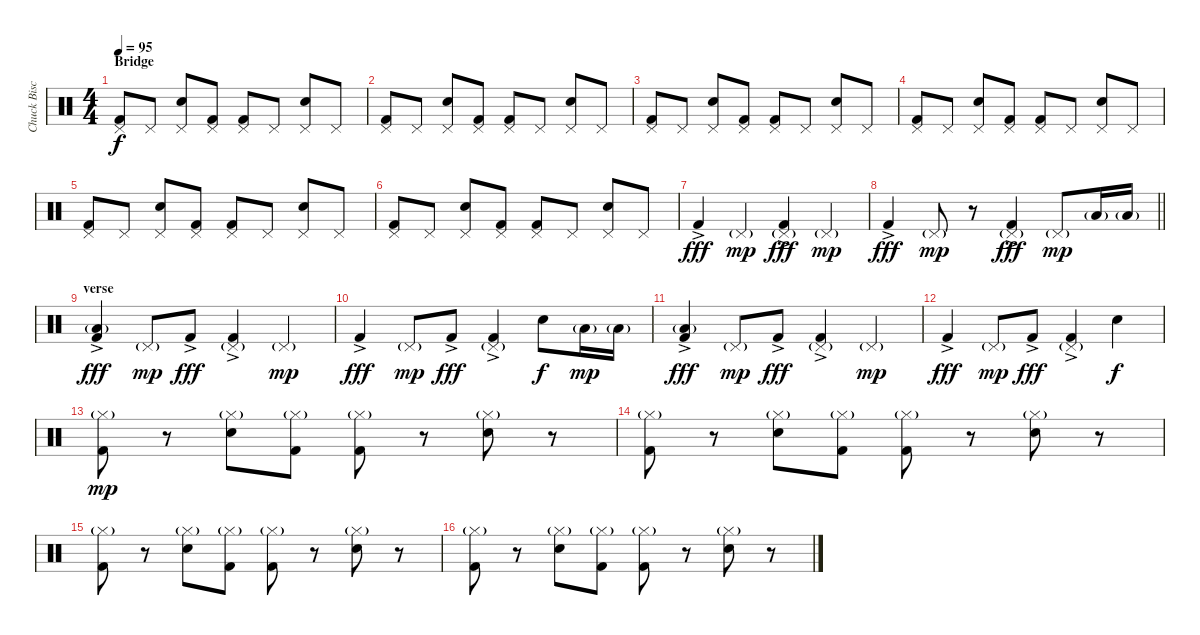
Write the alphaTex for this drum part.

\track ("Chuck Biscuits" "Chuck Bisc") {instrument percussion}
\staff {score}
\articulation defaults
\ts (4 4)
\section ("" "Bridge")
\tempo 95
\clef neutral
\ks c
("Pedal Hi-Hat (hit)" "Kick (hit) 2").8{dy f} "Pedal Hi-Hat (hit)".8 ("Pedal Hi-Hat (hit)" "Electric Snare (hit)").8 ("Pedal Hi-Hat (hit)" "Kick (hit) 2").8 ("Pedal Hi-Hat (hit)" "Kick (hit) 2").8 "Pedal Hi-Hat (hit)".8 ("Pedal Hi-Hat (hit)" "Electric Snare (hit)").8 "Pedal Hi-Hat (hit)".8 |
("Pedal Hi-Hat (hit)" "Kick (hit) 2").8 "Pedal Hi-Hat (hit)".8 ("Pedal Hi-Hat (hit)" "Electric Snare (hit)").8 ("Pedal Hi-Hat (hit)" "Kick (hit) 2").8 ("Pedal Hi-Hat (hit)" "Kick (hit) 2").8 "Pedal Hi-Hat (hit)".8 ("Pedal Hi-Hat (hit)" "Electric Snare (hit)").8 "Pedal Hi-Hat (hit)".8 |
("Pedal Hi-Hat (hit)" "Kick (hit) 2").8 "Pedal Hi-Hat (hit)".8 ("Pedal Hi-Hat (hit)" "Electric Snare (hit)").8 ("Pedal Hi-Hat (hit)" "Kick (hit) 2").8 ("Pedal Hi-Hat (hit)" "Kick (hit) 2").8 "Pedal Hi-Hat (hit)".8 ("Pedal Hi-Hat (hit)" "Electric Snare (hit)").8 "Pedal Hi-Hat (hit)".8 |
("Pedal Hi-Hat (hit)" "Kick (hit) 2").8 "Pedal Hi-Hat (hit)".8 ("Pedal Hi-Hat (hit)" "Electric Snare (hit)").8 ("Pedal Hi-Hat (hit)" "Kick (hit) 2").8 ("Pedal Hi-Hat (hit)" "Kick (hit) 2").8 "Pedal Hi-Hat (hit)".8 ("Pedal Hi-Hat (hit)" "Electric Snare (hit)").8 "Pedal Hi-Hat (hit)".8 |
("Pedal Hi-Hat (hit)" "Kick (hit) 2").8 "Pedal Hi-Hat (hit)".8 ("Pedal Hi-Hat (hit)" "Electric Snare (hit)").8 ("Pedal Hi-Hat (hit)" "Kick (hit) 2").8 ("Pedal Hi-Hat (hit)" "Kick (hit) 2").8 "Pedal Hi-Hat (hit)".8 ("Pedal Hi-Hat (hit)" "Electric Snare (hit)").8 "Pedal Hi-Hat (hit)".8 |
("Pedal Hi-Hat (hit)" "Kick (hit) 2").8 "Pedal Hi-Hat (hit)".8 ("Pedal Hi-Hat (hit)" "Electric Snare (hit)").8 ("Pedal Hi-Hat (hit)" "Kick (hit) 2").8 ("Pedal Hi-Hat (hit)" "Kick (hit) 2").8 "Pedal Hi-Hat (hit)".8 ("Pedal Hi-Hat (hit)" "Electric Snare (hit)").8 "Pedal Hi-Hat (hit)".8 |
"Kick (hit) 2"{ac}.4{dy fff} "Pedal Hi-Hat (hit)"{g}.4{dy mp} ("Pedal Hi-Hat (hit)"{g} "Kick (hit) 2"{ac}).4{dy fff} "Pedal Hi-Hat (hit)"{g}.4{dy mp} |
\barLineRight lightlight "Kick (hit) 2"{ac}.4{dy fff} "Pedal Hi-Hat (hit)"{g}.8{dy mp}
r.8 ("Pedal Hi-Hat (hit)"{g} "Kick (hit) 2"{ac}).4{dy fff} "Pedal Hi-Hat (hit)"{g}.8{dy mp} "Low Floor Tom (hit)"{g}.16 "Low Floor Tom (hit)"{g}.16 |
\section ("" "verse")
("Low Floor Tom (hit)"{g} "Kick (hit) 2"{ac}).4{dy fff} "Pedal Hi-Hat (hit)"{g}.8{dy mp} "Kick (hit) 2"{ac}.8{dy fff} ("Pedal Hi-Hat (hit)"{g} "Kick (hit) 2"{ac}).4 "Pedal Hi-Hat (hit)"{g}.4{dy mp} |
"Kick (hit) 2"{ac}.4{dy fff} "Pedal Hi-Hat (hit)"{g}.8{dy mp} "Kick (hit) 2"{ac}.8{dy fff} ("Pedal Hi-Hat (hit)"{g} "Kick (hit) 2"{ac}).4 "Electric Snare (hit)".8{dy f} "Low Floor Tom (hit)"{g}.16{dy mp} "Low Floor Tom (hit)"{g}.16 |
("Low Floor Tom (hit)"{g} "Kick (hit) 2"{ac}).4{dy fff} "Pedal Hi-Hat (hit)"{g}.8{dy mp} "Kick (hit) 2"{ac}.8{dy fff} ("Pedal Hi-Hat (hit)"{g} "Kick (hit) 2"{ac}).4 "Pedal Hi-Hat (hit)"{g}.4{dy mp} |
"Kick (hit) 2"{ac}.4{dy fff} "Pedal Hi-Hat (hit)"{g}.8{dy mp} "Kick (hit) 2"{ac}.8{dy fff} ("Pedal Hi-Hat (hit)"{g} "Kick (hit) 2"{ac}).4 "Electric Snare (hit)".4{dy f} |
("Hi-Hat (closed)"{g} "Kick (hit) 2").8{dy mp} r.8 ("Hi-Hat (closed)"{g} "Electric Snare (hit)").8 ("Hi-Hat (closed)"{g} "Kick (hit) 2").8 ("Hi-Hat (closed)"{g} "Kick (hit) 2").8 r.8 ("Hi-Hat (closed)"{g} "Electric Snare (hit)").8 r.8 |
("Hi-Hat (closed)"{g} "Kick (hit) 2").8 r.8 ("Hi-Hat (closed)"{g} "Electric Snare (hit)").8 ("Hi-Hat (closed)"{g} "Kick (hit) 2").8 ("Hi-Hat (closed)"{g} "Kick (hit) 2").8 r.8 ("Hi-Hat (closed)"{g} "Electric Snare (hit)").8 r.8 |
("Hi-Hat (closed)"{g} "Kick (hit) 2").8 r.8 ("Hi-Hat (closed)"{g} "Electric Snare (hit)").8 ("Hi-Hat (closed)"{g} "Kick (hit) 2").8 ("Hi-Hat (closed)"{g} "Kick (hit) 2").8 r.8 ("Hi-Hat (closed)"{g} "Electric Snare (hit)").8 r.8 |
("Hi-Hat (closed)"{g} "Kick (hit) 2").8 r.8 ("Hi-Hat (closed)"{g} "Electric Snare (hit)").8 ("Hi-Hat (closed)"{g} "Kick (hit) 2").8 ("Hi-Hat (closed)"{g} "Kick (hit) 2").8 r.8 ("Hi-Hat (closed)"{g} "Electric Snare (hit)").8 r.8
